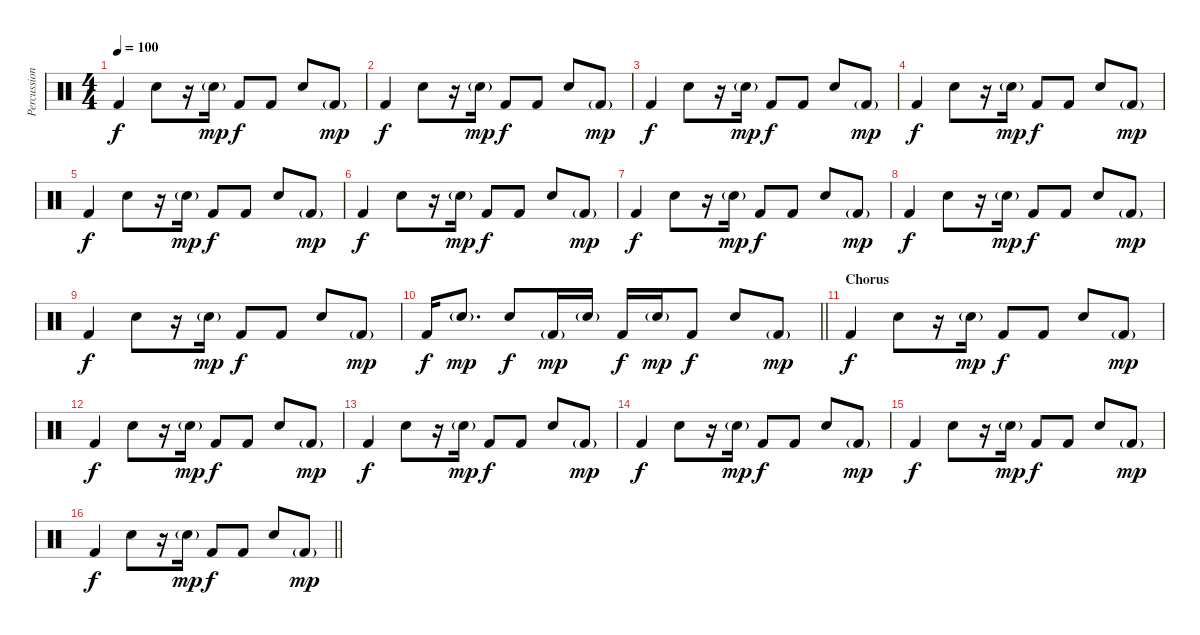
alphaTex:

\track ("Percussion" "Percussion") {instrument percussion}
\staff {score}
\articulation defaults
\ts (4 4)
\tempo 100
\clef neutral
\ks c "Kick (hit) 2".4{dy f} "Snare (hit) 2".8
r.16 "Snare (hit) 2"{g}.16{dy mp} "Kick (hit) 2".8{dy f} "Kick (hit) 2".8 "Snare (hit) 2".8 "Kick (hit) 2"{g}.8{dy mp} |
"Kick (hit) 2".4{dy f} "Snare (hit) 2".8 r.16 "Snare (hit) 2"{g}.16{dy mp} "Kick (hit) 2".8{dy f} "Kick (hit) 2".8 "Snare (hit) 2".8 "Kick (hit) 2"{g}.8{dy mp} |
"Kick (hit) 2".4{dy f} "Snare (hit) 2".8 r.16 "Snare (hit) 2"{g}.16{dy mp} "Kick (hit) 2".8{dy f} "Kick (hit) 2".8 "Snare (hit) 2".8 "Kick (hit) 2"{g}.8{dy mp} |
"Kick (hit) 2".4{dy f} "Snare (hit) 2".8 r.16 "Snare (hit) 2"{g}.16{dy mp} "Kick (hit) 2".8{dy f} "Kick (hit) 2".8 "Snare (hit) 2".8 "Kick (hit) 2"{g}.8{dy mp} |
"Kick (hit) 2".4{dy f} "Snare (hit) 2".8 r.16 "Snare (hit) 2"{g}.16{dy mp} "Kick (hit) 2".8{dy f} "Kick (hit) 2".8 "Snare (hit) 2".8 "Kick (hit) 2"{g}.8{dy mp} |
"Kick (hit) 2".4{dy f} "Snare (hit) 2".8 r.16 "Snare (hit) 2"{g}.16{dy mp} "Kick (hit) 2".8{dy f} "Kick (hit) 2".8 "Snare (hit) 2".8 "Kick (hit) 2"{g}.8{dy mp} |
"Kick (hit) 2".4{dy f} "Snare (hit) 2".8 r.16 "Snare (hit) 2"{g}.16{dy mp} "Kick (hit) 2".8{dy f} "Kick (hit) 2".8 "Snare (hit) 2".8 "Kick (hit) 2"{g}.8{dy mp} |
"Kick (hit) 2".4{dy f} "Snare (hit) 2".8 r.16 "Snare (hit) 2"{g}.16{dy mp} "Kick (hit) 2".8{dy f} "Kick (hit) 2".8 "Snare (hit) 2".8 "Kick (hit) 2"{g}.8{dy mp} |
"Kick (hit) 2".4{dy f} "Snare (hit) 2".8 r.16 "Snare (hit) 2"{g}.16{dy mp} "Kick (hit) 2".8{dy f} "Kick (hit) 2".8 "Snare (hit) 2".8 "Kick (hit) 2"{g}.8{dy mp} |
\barLineRight lightlight "Kick (hit) 2".16{dy f} "Snare (hit) 2"{g}.8{d dy mp} "Snare (hit) 2".8{dy f} "Kick (hit) 2"{g}.16{dy mp} "Snare (hit) 2"{g}.16 "Kick (hit) 2".16{dy f} "Snare (hit) 2"{g}.16{dy mp} "Kick (hit) 2".8{dy f} "Snare (hit) 2".8 "Kick (hit) 2"{g}.8{dy mp}
|
\section ("" "Chorus")
"Kick (hit) 2".4{dy f} "Snare (hit) 2".8 r.16 "Snare (hit) 2"{g}.16{dy mp} "Kick (hit) 2".8{dy f} "Kick (hit) 2".8 "Snare (hit) 2".8 "Kick (hit) 2"{g}.8{dy mp} |
"Kick (hit) 2".4{dy f} "Snare (hit) 2".8 r.16 "Snare (hit) 2"{g}.16{dy mp} "Kick (hit) 2".8{dy f} "Kick (hit) 2".8 "Snare (hit) 2".8 "Kick (hit) 2"{g}.8{dy mp} |
"Kick (hit) 2".4{dy f} "Snare (hit) 2".8 r.16 "Snare (hit) 2"{g}.16{dy mp} "Kick (hit) 2".8{dy f} "Kick (hit) 2".8 "Snare (hit) 2".8 "Kick (hit) 2"{g}.8{dy mp} |
"Kick (hit) 2".4{dy f} "Snare (hit) 2".8 r.16 "Snare (hit) 2"{g}.16{dy mp} "Kick (hit) 2".8{dy f} "Kick (hit) 2".8 "Snare (hit) 2".8 "Kick (hit) 2"{g}.8{dy mp} |
"Kick (hit) 2".4{dy f} "Snare (hit) 2".8 r.16 "Snare (hit) 2"{g}.16{dy mp} "Kick (hit) 2".8{dy f} "Kick (hit) 2".8 "Snare (hit) 2".8 "Kick (hit) 2"{g}.8{dy mp} |
\barLineRight lightlight "Kick (hit) 2".4{dy f} "Snare (hit) 2".8
r.16 "Snare (hit) 2"{g}.16{dy mp} "Kick (hit) 2".8{dy f} "Kick (hit) 2".8 "Snare (hit) 2".8 "Kick (hit) 2"{g}.8{dy mp}
